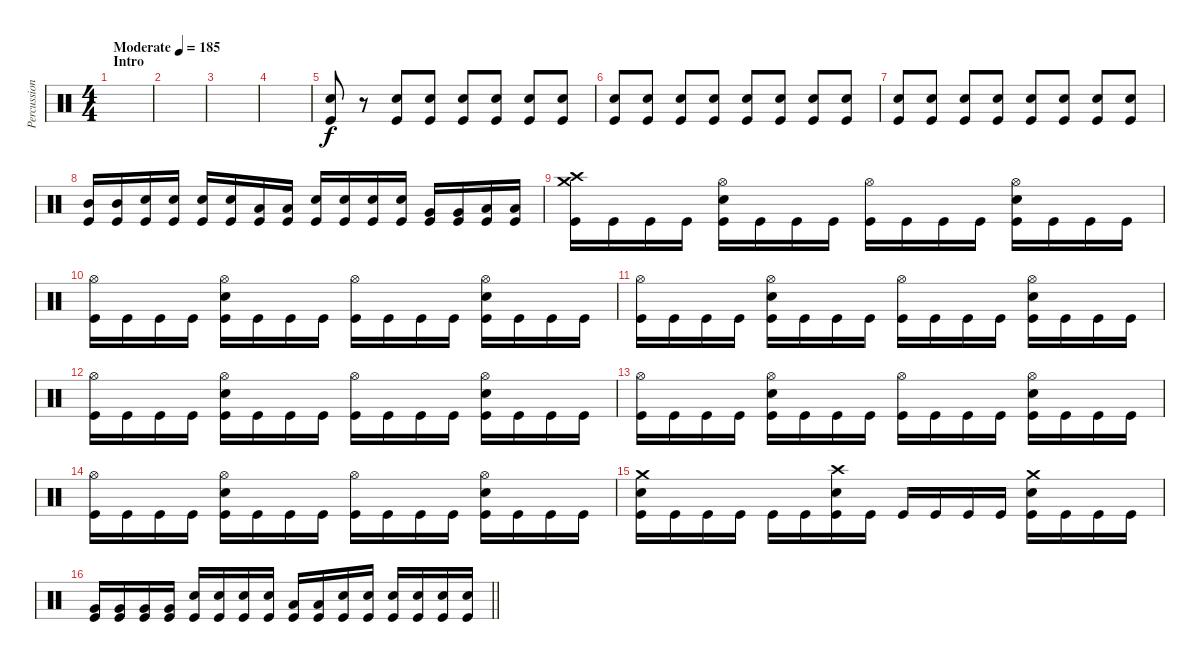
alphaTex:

\track ("Percussion" "Percussion") {instrument percussion}
\staff {score}
\articulation defaults
\ts (4 4)
\section ("" "Intro")
\tempo (185 "Moderate")
\clef neutral
\ks c
|
|
|
|
("Electric Snare (hit)" "Kick (hit)").8 r.8{volume 0} ("Electric Snare (hit)" "Kick (hit)").8{volume 16} ("Electric Snare (hit)" "Kick (hit)").8 ("Electric Snare (hit)" "Kick (hit)").8 ("Electric Snare (hit)" "Kick (hit)").8 ("Electric Snare (hit)" "Kick (hit)").8 ("Electric Snare (hit)" "Kick (hit)").8 |
("Electric Snare (hit)" "Kick (hit)").8 ("Electric Snare (hit)" "Kick (hit)").8 ("Electric Snare (hit)" "Kick (hit)").8 ("Electric Snare (hit)" "Kick (hit)").8 ("Electric Snare (hit)" "Kick (hit)").8 ("Electric Snare (hit)" "Kick (hit)").8 ("Electric Snare (hit)" "Kick (hit)").8 ("Electric Snare (hit)" "Kick (hit)").8 |
("Electric Snare (hit)" "Kick (hit)").8 ("Electric Snare (hit)" "Kick (hit)").8 ("Electric Snare (hit)" "Kick (hit)").8 ("Electric Snare (hit)" "Kick (hit)").8 ("Electric Snare (hit)" "Kick (hit)").8 ("Electric Snare (hit)" "Kick (hit)").8 ("Electric Snare (hit)" "Kick (hit)").8 ("Electric Snare (hit)" "Kick (hit)").8 |
("Mid Tom (hit)" "Kick (hit)").16 ("Mid Tom (hit)" "Kick (hit)").16 ("Electric Snare (hit)" "Kick (hit)").16 ("Electric Snare (hit)" "Kick (hit)").16 ("Electric Snare (hit)" "Kick (hit)").16 ("Electric Snare (hit)" "Kick (hit)").16 ("Low Tom (hit)" "Kick (hit)").16 ("Low Tom (hit)" "Kick (hit)").16 ("Electric Snare (hit)" "Kick (hit)").16 ("Electric Snare (hit)" "Kick (hit)").16 ("Electric Snare (hit)" "Kick (hit)").16 ("Electric Snare (hit)" "Kick (hit)").16 ("Very Low Tom (hit)" "Kick (hit)").16 ("Very Low Tom (hit)" "Kick (hit)").16 ("Low Floor Tom (hit)" "Kick (hit)").16 ("Low Floor Tom (hit)" "Kick (hit)").16 |
("Crash high (hit)" "Crash medium (hit)" "Kick (hit)").16 "Kick (hit)".16 "Kick (hit)".16 "Kick (hit)".16 ("Hi-Hat (open)" "Electric Snare (hit)" "Kick (hit)").16 "Kick (hit)".16 "Kick (hit)".16 "Kick (hit)".16 ("Hi-Hat (open)" "Kick (hit)").16 "Kick (hit)".16 "Kick (hit)".16 "Kick (hit)".16 ("Hi-Hat (open)" "Electric Snare (hit)" "Kick (hit)").16 "Kick (hit)".16 "Kick (hit)".16 "Kick (hit)".16 |
("Hi-Hat (open)" "Kick (hit)").16 "Kick (hit)".16 "Kick (hit)".16 "Kick (hit)".16 ("Hi-Hat (open)" "Electric Snare (hit)" "Kick (hit)").16 "Kick (hit)".16 "Kick (hit)".16 "Kick (hit)".16 ("Hi-Hat (open)" "Kick (hit)").16 "Kick (hit)".16 "Kick (hit)".16 "Kick (hit)".16 ("Hi-Hat (open)" "Electric Snare (hit)" "Kick (hit)").16 "Kick (hit)".16 "Kick (hit)".16 "Kick (hit)".16 |
("Hi-Hat (open)" "Kick (hit)").16 "Kick (hit)".16 "Kick (hit)".16 "Kick (hit)".16 ("Hi-Hat (open)" "Electric Snare (hit)" "Kick (hit)").16 "Kick (hit)".16 "Kick (hit)".16 "Kick (hit)".16 ("Hi-Hat (open)" "Kick (hit)").16 "Kick (hit)".16 "Kick (hit)".16 "Kick (hit)".16 ("Hi-Hat (open)" "Electric Snare (hit)" "Kick (hit)").16 "Kick (hit)".16 "Kick (hit)".16 "Kick (hit)".16 |
("Hi-Hat (open)" "Kick (hit)").16 "Kick (hit)".16 "Kick (hit)".16 "Kick (hit)".16 ("Hi-Hat (open)" "Electric Snare (hit)" "Kick (hit)").16 "Kick (hit)".16 "Kick (hit)".16 "Kick (hit)".16 ("Hi-Hat (open)" "Kick (hit)").16 "Kick (hit)".16 "Kick (hit)".16 "Kick (hit)".16 ("Hi-Hat (open)" "Electric Snare (hit)" "Kick (hit)").16 "Kick (hit)".16 "Kick (hit)".16 "Kick (hit)".16 |
("Hi-Hat (open)" "Kick (hit)").16 "Kick (hit)".16 "Kick (hit)".16 "Kick (hit)".16 ("Hi-Hat (open)" "Electric Snare (hit)" "Kick (hit)").16 "Kick (hit)".16 "Kick (hit)".16 "Kick (hit)".16 ("Hi-Hat (open)" "Kick (hit)").16 "Kick (hit)".16 "Kick (hit)".16 "Kick (hit)".16 ("Hi-Hat (open)" "Electric Snare (hit)" "Kick (hit)").16 "Kick (hit)".16 "Kick (hit)".16 "Kick (hit)".16 |
("Hi-Hat (open)" "Kick (hit)").16 "Kick (hit)".16 "Kick (hit)".16 "Kick (hit)".16 ("Hi-Hat (open)" "Electric Snare (hit)" "Kick (hit)").16 "Kick (hit)".16 "Kick (hit)".16 "Kick (hit)".16 ("Hi-Hat (open)" "Kick (hit)").16 "Kick (hit)".16 "Kick (hit)".16 "Kick (hit)".16 ("Hi-Hat (open)" "Electric Snare (hit)" "Kick (hit)").16 "Kick (hit)".16 "Kick (hit)".16 "Kick (hit)".16 |
("Crash medium (hit)" "Electric Snare (hit)" "Kick (hit)").16 "Kick (hit)".16 "Kick (hit)".16 "Kick (hit)".16 "Kick (hit)".16 "Kick (hit)".16 ("Crash high (hit)" "Electric Snare (hit)" "Kick (hit)").16 "Kick (hit)".16 "Kick (hit)".16 "Kick (hit)".16 "Kick (hit)".16 "Kick (hit)".16 ("Crash medium (hit)" "Electric Snare (hit)" "Kick (hit)").16 "Kick (hit)".16 "Kick (hit)".16 "Kick (hit)".16 |
\barLineRight lightlight
("Very Low Tom (hit)" "Kick (hit)").16 ("Very Low Tom (hit)" "Kick (hit)").16 ("Very Low Tom (hit)" "Kick (hit)").16 ("Very Low Tom (hit)" "Kick (hit)").16 ("Electric Snare (hit)" "Kick (hit)").16 ("Electric Snare (hit)" "Kick (hit)").16 ("Electric Snare (hit)" "Kick (hit)").16 ("Electric Snare (hit)" "Kick (hit)").16 ("Low Tom (hit)" "Kick (hit)").16 ("Low Tom (hit)" "Kick (hit)").16 ("Electric Snare (hit)" "Kick (hit)").16 ("Electric Snare (hit)" "Kick (hit)").16 ("Electric Snare (hit)" "Kick (hit)").16 ("Electric Snare (hit)" "Kick (hit)").16 ("Electric Snare (hit)" "Kick (hit)").16 ("Electric Snare (hit)" "Kick (hit)").16
